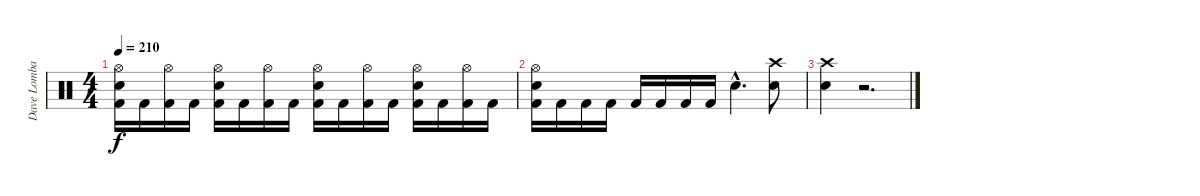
\track ("Dave Lombardo" "Dave Lomba") {instrument percussion}
\staff {score}
\articulation defaults
\ts (4 4)
\tempo 210
\clef neutral
\ks c
("Hi-Hat (open)" "Snare (hit) 2" "Kick (hit) 2").16{dy f} "Kick (hit) 2".16 ("Hi-Hat (open)" "Kick (hit) 2").16 "Kick (hit) 2".16 ("Hi-Hat (open)" "Snare (hit) 2" "Kick (hit) 2").16 "Kick (hit) 2".16 ("Hi-Hat (open)" "Kick (hit) 2").16 "Kick (hit) 2".16 ("Hi-Hat (open)" "Snare (hit) 2" "Kick (hit) 2").16 "Kick (hit) 2".16 ("Hi-Hat (open)" "Kick (hit) 2").16 "Kick (hit) 2".16 ("Hi-Hat (open)" "Snare (hit) 2" "Kick (hit) 2").16 "Kick (hit) 2".16 ("Hi-Hat (open)" "Kick (hit) 2").16 "Kick (hit) 2".16 |
("Hi-Hat (open)" "Snare (hit) 2" "Kick (hit) 2").16 "Kick (hit) 2".16 "Kick (hit) 2".16 "Kick (hit) 2".16 "Kick (hit) 2".16 "Kick (hit) 2".16 "Kick (hit) 2".16 "Kick (hit) 2".16 "Snare (hit) 2"{hac}.4{d} ("Crash high (hit)" "Snare (hit) 2").8 |
("Crash high (hit)" "Snare (hit) 2").4 r.2{d}
